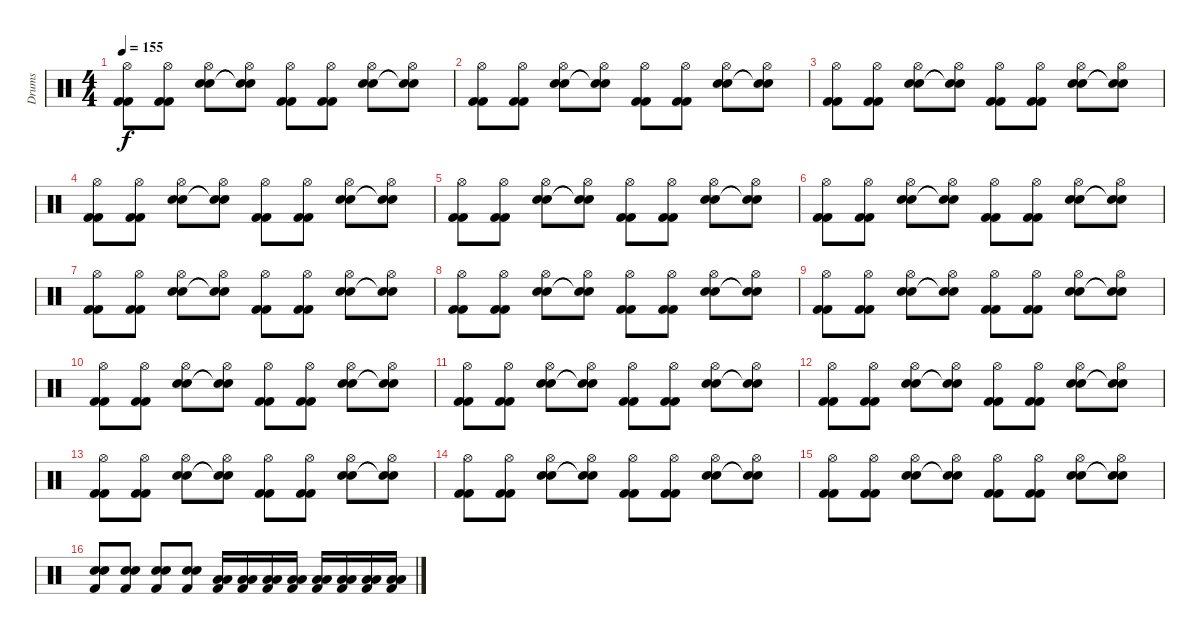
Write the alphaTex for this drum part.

\track ("Drums" "Drums") {instrument percussion}
\staff {score}
\articulation defaults
\ts (4 4)
\tempo 155
\clef neutral
\ks c
("Hi-Hat (open)" "Kick (hit) 2" "Kick (hit) 2").8{dy f} ("Hi-Hat (open)" "Kick (hit) 2" "Kick (hit) 2").8 ("Hi-Hat (open)" "Electric Snare (hit)" "Electric Snare (hit)").8 ("Hi-Hat (open)" "Snare (hit)"{t} "Snare (hit)"{t}).8 ("Hi-Hat (open)" "Kick (hit) 2" "Kick (hit) 2").8 ("Hi-Hat (open)" "Kick (hit) 2" "Kick (hit) 2").8 ("Hi-Hat (open)" "Electric Snare (hit)" "Electric Snare (hit)").8 ("Hi-Hat (open)" "Snare (hit)"{t} "Snare (hit)"{t}).8 |
("Hi-Hat (open)" "Kick (hit) 2" "Kick (hit) 2").8 ("Hi-Hat (open)" "Kick (hit) 2" "Kick (hit) 2").8 ("Hi-Hat (open)" "Electric Snare (hit)" "Electric Snare (hit)").8 ("Hi-Hat (open)" "Snare (hit)"{t} "Snare (hit)"{t}).8 ("Hi-Hat (open)" "Kick (hit) 2" "Kick (hit) 2").8 ("Hi-Hat (open)" "Kick (hit) 2" "Kick (hit) 2").8 ("Hi-Hat (open)" "Electric Snare (hit)" "Electric Snare (hit)").8 ("Hi-Hat (open)" "Snare (hit)"{t} "Snare (hit)"{t}).8 |
("Hi-Hat (open)" "Kick (hit) 2" "Kick (hit) 2").8 ("Hi-Hat (open)" "Kick (hit) 2" "Kick (hit) 2").8 ("Hi-Hat (open)" "Electric Snare (hit)" "Electric Snare (hit)").8 ("Hi-Hat (open)" "Snare (hit)"{t} "Snare (hit)"{t}).8 ("Hi-Hat (open)" "Kick (hit) 2" "Kick (hit) 2").8 ("Hi-Hat (open)" "Kick (hit) 2" "Kick (hit) 2").8 ("Hi-Hat (open)" "Electric Snare (hit)" "Electric Snare (hit)").8 ("Hi-Hat (open)" "Snare (hit)"{t} "Snare (hit)"{t}).8 |
("Hi-Hat (open)" "Kick (hit) 2" "Kick (hit) 2").8 ("Hi-Hat (open)" "Kick (hit) 2" "Kick (hit) 2").8 ("Hi-Hat (open)" "Electric Snare (hit)" "Electric Snare (hit)").8 ("Hi-Hat (open)" "Snare (hit)"{t} "Snare (hit)"{t}).8 ("Hi-Hat (open)" "Kick (hit) 2" "Kick (hit) 2").8 ("Hi-Hat (open)" "Kick (hit) 2" "Kick (hit) 2").8 ("Hi-Hat (open)" "Electric Snare (hit)" "Electric Snare (hit)").8 ("Hi-Hat (open)" "Snare (hit)"{t} "Snare (hit)"{t}).8 |
("Hi-Hat (open)" "Kick (hit) 2" "Kick (hit) 2").8 ("Hi-Hat (open)" "Kick (hit) 2" "Kick (hit) 2").8 ("Hi-Hat (open)" "Electric Snare (hit)" "Electric Snare (hit)").8 ("Hi-Hat (open)" "Snare (hit)"{t} "Snare (hit)"{t}).8 ("Hi-Hat (open)" "Kick (hit) 2" "Kick (hit) 2").8 ("Hi-Hat (open)" "Kick (hit) 2" "Kick (hit) 2").8 ("Hi-Hat (open)" "Electric Snare (hit)" "Electric Snare (hit)").8 ("Hi-Hat (open)" "Snare (hit)"{t} "Snare (hit)"{t}).8 |
("Hi-Hat (open)" "Kick (hit) 2" "Kick (hit) 2").8 ("Hi-Hat (open)" "Kick (hit) 2" "Kick (hit) 2").8 ("Hi-Hat (open)" "Electric Snare (hit)" "Electric Snare (hit)").8 ("Hi-Hat (open)" "Snare (hit)"{t} "Snare (hit)"{t}).8 ("Hi-Hat (open)" "Kick (hit) 2" "Kick (hit) 2").8 ("Hi-Hat (open)" "Kick (hit) 2" "Kick (hit) 2").8 ("Hi-Hat (open)" "Electric Snare (hit)" "Electric Snare (hit)").8 ("Hi-Hat (open)" "Snare (hit)"{t} "Snare (hit)"{t}).8 |
("Hi-Hat (open)" "Kick (hit) 2" "Kick (hit) 2").8 ("Hi-Hat (open)" "Kick (hit) 2" "Kick (hit) 2").8 ("Hi-Hat (open)" "Electric Snare (hit)" "Electric Snare (hit)").8 ("Hi-Hat (open)" "Snare (hit)"{t} "Snare (hit)"{t}).8 ("Hi-Hat (open)" "Kick (hit) 2" "Kick (hit) 2").8 ("Hi-Hat (open)" "Kick (hit) 2" "Kick (hit) 2").8 ("Hi-Hat (open)" "Electric Snare (hit)" "Electric Snare (hit)").8 ("Hi-Hat (open)" "Snare (hit)"{t} "Snare (hit)"{t}).8 |
("Hi-Hat (open)" "Kick (hit) 2" "Kick (hit) 2").8 ("Hi-Hat (open)" "Kick (hit) 2" "Kick (hit) 2").8 ("Hi-Hat (open)" "Electric Snare (hit)" "Electric Snare (hit)").8 ("Hi-Hat (open)" "Snare (hit)"{t} "Snare (hit)"{t}).8 ("Hi-Hat (open)" "Kick (hit) 2" "Kick (hit) 2").8 ("Hi-Hat (open)" "Kick (hit) 2" "Kick (hit) 2").8 ("Hi-Hat (open)" "Electric Snare (hit)" "Electric Snare (hit)").8 ("Hi-Hat (open)" "Snare (hit)"{t} "Snare (hit)"{t}).8 |
("Hi-Hat (open)" "Kick (hit) 2" "Kick (hit) 2").8 ("Hi-Hat (open)" "Kick (hit) 2" "Kick (hit) 2").8 ("Hi-Hat (open)" "Electric Snare (hit)" "Electric Snare (hit)").8 ("Hi-Hat (open)" "Snare (hit)"{t} "Snare (hit)"{t}).8 ("Hi-Hat (open)" "Kick (hit) 2" "Kick (hit) 2").8 ("Hi-Hat (open)" "Kick (hit) 2" "Kick (hit) 2").8 ("Hi-Hat (open)" "Electric Snare (hit)" "Electric Snare (hit)").8 ("Hi-Hat (open)" "Snare (hit)"{t} "Snare (hit)"{t}).8 |
("Hi-Hat (open)" "Kick (hit) 2" "Kick (hit) 2").8 ("Hi-Hat (open)" "Kick (hit) 2" "Kick (hit) 2").8 ("Hi-Hat (open)" "Electric Snare (hit)" "Electric Snare (hit)").8 ("Hi-Hat (open)" "Snare (hit)"{t} "Snare (hit)"{t}).8 ("Hi-Hat (open)" "Kick (hit) 2" "Kick (hit) 2").8 ("Hi-Hat (open)" "Kick (hit) 2" "Kick (hit) 2").8 ("Hi-Hat (open)" "Electric Snare (hit)" "Electric Snare (hit)").8 ("Hi-Hat (open)" "Snare (hit)"{t} "Snare (hit)"{t}).8 |
("Hi-Hat (open)" "Kick (hit) 2" "Kick (hit) 2").8 ("Hi-Hat (open)" "Kick (hit) 2" "Kick (hit) 2").8 ("Hi-Hat (open)" "Electric Snare (hit)" "Electric Snare (hit)").8 ("Hi-Hat (open)" "Snare (hit)"{t} "Snare (hit)"{t}).8 ("Hi-Hat (open)" "Kick (hit) 2" "Kick (hit) 2").8 ("Hi-Hat (open)" "Kick (hit) 2" "Kick (hit) 2").8 ("Hi-Hat (open)" "Electric Snare (hit)" "Electric Snare (hit)").8 ("Hi-Hat (open)" "Snare (hit)"{t} "Snare (hit)"{t}).8 |
("Hi-Hat (open)" "Kick (hit) 2" "Kick (hit) 2").8 ("Hi-Hat (open)" "Kick (hit) 2" "Kick (hit) 2").8 ("Hi-Hat (open)" "Electric Snare (hit)" "Electric Snare (hit)").8 ("Hi-Hat (open)" "Snare (hit)"{t} "Snare (hit)"{t}).8 ("Hi-Hat (open)" "Kick (hit) 2" "Kick (hit) 2").8 ("Hi-Hat (open)" "Kick (hit) 2" "Kick (hit) 2").8 ("Hi-Hat (open)" "Electric Snare (hit)" "Electric Snare (hit)").8 ("Hi-Hat (open)" "Snare (hit)"{t} "Snare (hit)"{t}).8 |
("Hi-Hat (open)" "Kick (hit) 2" "Kick (hit) 2").8 ("Hi-Hat (open)" "Kick (hit) 2" "Kick (hit) 2").8 ("Hi-Hat (open)" "Electric Snare (hit)" "Electric Snare (hit)").8 ("Hi-Hat (open)" "Snare (hit)"{t} "Snare (hit)"{t}).8 ("Hi-Hat (open)" "Kick (hit) 2" "Kick (hit) 2").8 ("Hi-Hat (open)" "Kick (hit) 2" "Kick (hit) 2").8 ("Hi-Hat (open)" "Electric Snare (hit)" "Electric Snare (hit)").8 ("Hi-Hat (open)" "Snare (hit)"{t} "Snare (hit)"{t}).8 |
("Hi-Hat (open)" "Kick (hit) 2" "Kick (hit) 2").8 ("Hi-Hat (open)" "Kick (hit) 2" "Kick (hit) 2").8 ("Hi-Hat (open)" "Electric Snare (hit)" "Electric Snare (hit)").8 ("Hi-Hat (open)" "Snare (hit)"{t} "Snare (hit)"{t}).8 ("Hi-Hat (open)" "Kick (hit) 2" "Kick (hit) 2").8 ("Hi-Hat (open)" "Kick (hit) 2" "Kick (hit) 2").8 ("Hi-Hat (open)" "Electric Snare (hit)" "Electric Snare (hit)").8 ("Hi-Hat (open)" "Snare (hit)"{t} "Snare (hit)"{t}).8 |
("Hi-Hat (open)" "Kick (hit) 2" "Kick (hit) 2").8 ("Hi-Hat (open)" "Kick (hit) 2" "Kick (hit) 2").8 ("Hi-Hat (open)" "Electric Snare (hit)" "Electric Snare (hit)").8 ("Hi-Hat (open)" "Snare (hit)"{t} "Snare (hit)"{t}).8 ("Hi-Hat (open)" "Kick (hit) 2" "Kick (hit) 2").8 ("Hi-Hat (open)" "Kick (hit) 2" "Kick (hit) 2").8 ("Hi-Hat (open)" "Electric Snare (hit)" "Electric Snare (hit)").8 ("Hi-Hat (open)" "Snare (hit)"{t} "Snare (hit)"{t}).8 |
("Electric Snare (hit)" "Electric Snare (hit)" "Kick (hit) 2").8 ("Electric Snare (hit)" "Electric Snare (hit)" "Kick (hit) 2").8 ("Electric Snare (hit)" "Electric Snare (hit)" "Kick (hit) 2").8 ("Electric Snare (hit)" "Electric Snare (hit)" "Kick (hit) 2").8 ("Low Tom (hit)" "Low Tom (hit)" "Kick (hit) 2").16 ("Low Tom (hit)" "Low Tom (hit)" "Kick (hit) 2").16 ("Low Tom (hit)" "Low Tom (hit)" "Kick (hit) 2").16 ("Low Tom (hit)" "Low Tom (hit)" "Kick (hit) 2").16 ("Low Tom (hit)" "Low Tom (hit)" "Kick (hit) 2").16 ("Low Tom (hit)" "Low Tom (hit)" "Kick (hit) 2").16 ("Low Tom (hit)" "Low Tom (hit)" "Kick (hit) 2").16 ("Low Tom (hit)" "Low Tom (hit)" "Kick (hit) 2").16
